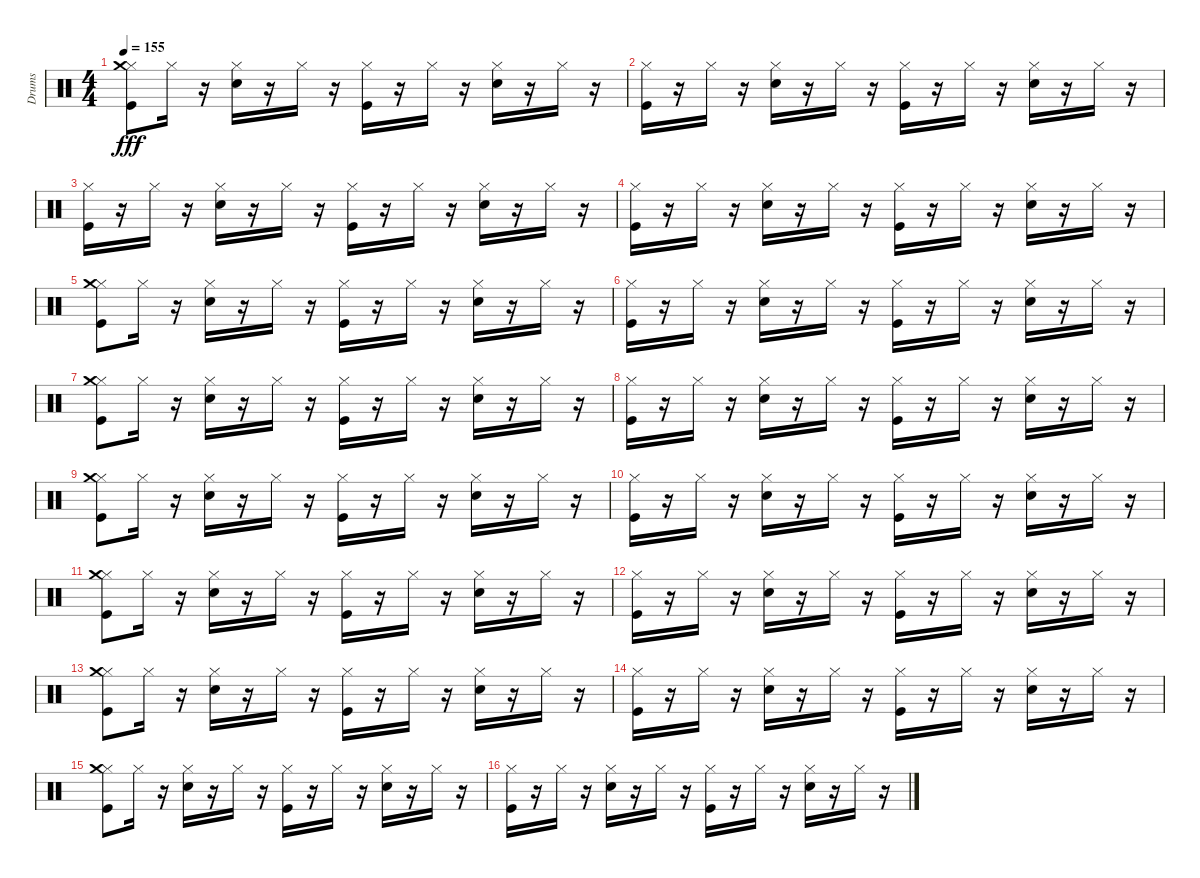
\track ("Drums" "Drums") {instrument percussion}
\staff {score}
\articulation defaults
\ts (4 4)
\tempo 155
\clef neutral
\ks c
("Kick (hit)" "Hi-Hat (closed)" "Crash medium (hit)").8{dy fff} "Hi-Hat (closed)".16 r.16 ("Snare (hit) 2" "Hi-Hat (closed)").16 r.16 "Hi-Hat (closed)".16 r.16 ("Kick (hit)" "Hi-Hat (closed)").16 r.16 "Hi-Hat (closed)".16 r.16 ("Snare (hit) 2" "Hi-Hat (closed)").16 r.16 "Hi-Hat (closed)".16 r.16 |
("Hi-Hat (closed)" "Kick (hit)").16 r.16 "Hi-Hat (closed)".16 r.16 ("Hi-Hat (closed)" "Snare (hit) 2").16 r.16 "Hi-Hat (closed)".16 r.16 ("Hi-Hat (closed)" "Kick (hit)").16 r.16 "Hi-Hat (closed)".16 r.16 ("Hi-Hat (closed)" "Snare (hit) 2").16 r.16 "Hi-Hat (closed)".16 r.16 |
("Kick (hit)" "Hi-Hat (closed)").16 r.16 "Hi-Hat (closed)".16 r.16 ("Snare (hit) 2" "Hi-Hat (closed)").16 r.16 "Hi-Hat (closed)".16 r.16 ("Kick (hit)" "Hi-Hat (closed)").16 r.16 "Hi-Hat (closed)".16 r.16 ("Snare (hit) 2" "Hi-Hat (closed)").16 r.16 "Hi-Hat (closed)".16 r.16 |
("Hi-Hat (closed)" "Kick (hit)").16 r.16 "Hi-Hat (closed)".16 r.16 ("Hi-Hat (closed)" "Snare (hit) 2").16 r.16 "Hi-Hat (closed)".16 r.16 ("Hi-Hat (closed)" "Kick (hit)").16 r.16 "Hi-Hat (closed)".16 r.16 ("Hi-Hat (closed)" "Snare (hit) 2").16 r.16 "Hi-Hat (closed)".16 r.16 |
("Kick (hit)" "Hi-Hat (closed)" "Crash medium (hit)").8 "Hi-Hat (closed)".16 r.16 ("Snare (hit) 2" "Hi-Hat (closed)").16 r.16 "Hi-Hat (closed)".16 r.16 ("Kick (hit)" "Hi-Hat (closed)").16 r.16 "Hi-Hat (closed)".16 r.16 ("Snare (hit) 2" "Hi-Hat (closed)").16 r.16 "Hi-Hat (closed)".16 r.16 |
("Hi-Hat (closed)" "Kick (hit)").16 r.16 "Hi-Hat (closed)".16 r.16 ("Hi-Hat (closed)" "Snare (hit) 2").16 r.16 "Hi-Hat (closed)".16 r.16 ("Hi-Hat (closed)" "Kick (hit)").16 r.16 "Hi-Hat (closed)".16 r.16 ("Hi-Hat (closed)" "Snare (hit) 2").16 r.16 "Hi-Hat (closed)".16 r.16 |
("Kick (hit)" "Hi-Hat (closed)" "Crash medium (hit)").8 "Hi-Hat (closed)".16 r.16 ("Snare (hit) 2" "Hi-Hat (closed)").16 r.16 "Hi-Hat (closed)".16 r.16 ("Kick (hit)" "Hi-Hat (closed)").16 r.16 "Hi-Hat (closed)".16 r.16 ("Snare (hit) 2" "Hi-Hat (closed)").16 r.16 "Hi-Hat (closed)".16 r.16 |
("Hi-Hat (closed)" "Kick (hit)").16 r.16 "Hi-Hat (closed)".16 r.16 ("Hi-Hat (closed)" "Snare (hit) 2").16 r.16 "Hi-Hat (closed)".16 r.16 ("Hi-Hat (closed)" "Kick (hit)").16 r.16 "Hi-Hat (closed)".16 r.16 ("Hi-Hat (closed)" "Snare (hit) 2").16 r.16 "Hi-Hat (closed)".16 r.16 |
("Kick (hit)" "Hi-Hat (closed)" "Crash medium (hit)").8 "Hi-Hat (closed)".16 r.16 ("Snare (hit) 2" "Hi-Hat (closed)").16 r.16 "Hi-Hat (closed)".16 r.16 ("Kick (hit)" "Hi-Hat (closed)").16 r.16 "Hi-Hat (closed)".16 r.16 ("Snare (hit) 2" "Hi-Hat (closed)").16 r.16 "Hi-Hat (closed)".16 r.16 |
("Hi-Hat (closed)" "Kick (hit)").16 r.16 "Hi-Hat (closed)".16 r.16 ("Hi-Hat (closed)" "Snare (hit) 2").16 r.16 "Hi-Hat (closed)".16 r.16 ("Hi-Hat (closed)" "Kick (hit)").16 r.16 "Hi-Hat (closed)".16 r.16 ("Hi-Hat (closed)" "Snare (hit) 2").16 r.16 "Hi-Hat (closed)".16 r.16 |
("Kick (hit)" "Hi-Hat (closed)" "Crash medium (hit)").8 "Hi-Hat (closed)".16 r.16 ("Snare (hit) 2" "Hi-Hat (closed)").16 r.16 "Hi-Hat (closed)".16 r.16 ("Kick (hit)" "Hi-Hat (closed)").16 r.16 "Hi-Hat (closed)".16 r.16 ("Snare (hit) 2" "Hi-Hat (closed)").16 r.16 "Hi-Hat (closed)".16 r.16 |
("Hi-Hat (closed)" "Kick (hit)").16 r.16 "Hi-Hat (closed)".16 r.16 ("Hi-Hat (closed)" "Snare (hit) 2").16 r.16 "Hi-Hat (closed)".16 r.16 ("Hi-Hat (closed)" "Kick (hit)").16 r.16 "Hi-Hat (closed)".16 r.16 ("Hi-Hat (closed)" "Snare (hit) 2").16 r.16 "Hi-Hat (closed)".16 r.16 |
("Kick (hit)" "Hi-Hat (closed)" "Crash medium (hit)").8 "Hi-Hat (closed)".16 r.16 ("Snare (hit) 2" "Hi-Hat (closed)").16 r.16 "Hi-Hat (closed)".16 r.16 ("Kick (hit)" "Hi-Hat (closed)").16 r.16 "Hi-Hat (closed)".16 r.16 ("Snare (hit) 2" "Hi-Hat (closed)").16 r.16 "Hi-Hat (closed)".16 r.16 |
("Hi-Hat (closed)" "Kick (hit)").16 r.16 "Hi-Hat (closed)".16 r.16 ("Hi-Hat (closed)" "Snare (hit) 2").16 r.16 "Hi-Hat (closed)".16 r.16 ("Hi-Hat (closed)" "Kick (hit)").16 r.16 "Hi-Hat (closed)".16 r.16 ("Hi-Hat (closed)" "Snare (hit) 2").16 r.16 "Hi-Hat (closed)".16 r.16 |
("Kick (hit)" "Hi-Hat (closed)" "Crash medium (hit)").8 "Hi-Hat (closed)".16 r.16 ("Snare (hit) 2" "Hi-Hat (closed)").16 r.16 "Hi-Hat (closed)".16 r.16 ("Kick (hit)" "Hi-Hat (closed)").16 r.16 "Hi-Hat (closed)".16 r.16 ("Snare (hit) 2" "Hi-Hat (closed)").16 r.16 "Hi-Hat (closed)".16 r.16 |
("Hi-Hat (closed)" "Kick (hit)").16 r.16 "Hi-Hat (closed)".16 r.16 ("Hi-Hat (closed)" "Snare (hit) 2").16 r.16 "Hi-Hat (closed)".16 r.16 ("Hi-Hat (closed)" "Kick (hit)").16 r.16 "Hi-Hat (closed)".16 r.16 ("Hi-Hat (closed)" "Snare (hit) 2").16 r.16 "Hi-Hat (closed)".16 r.16
